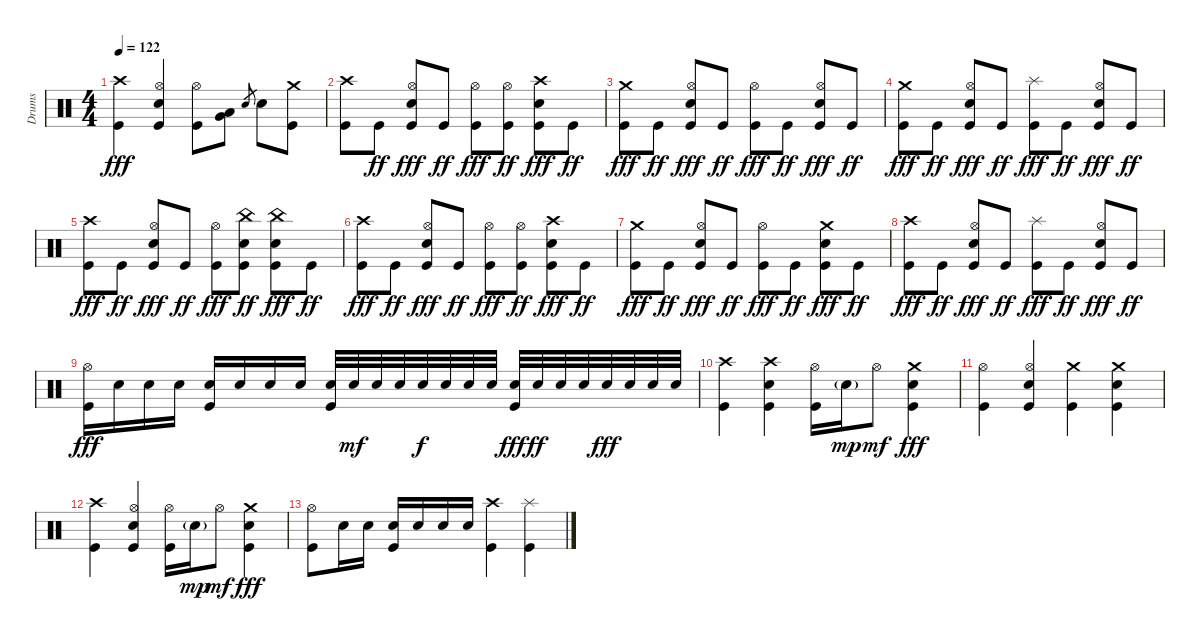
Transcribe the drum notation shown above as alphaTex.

\track ("Drums" "Drums") {instrument percussion}
\staff {score}
\articulation defaults
\ts (4 4)
\tempo 122
\clef neutral
\ks c
("Crash high (hit)" "Kick (hit)").4{dy fff} ("Hi-Hat (open)" "Snare (hit) 2" "Kick (hit)").4 ("Hi-Hat (open)" "Kick (hit)").8 ("Low Tom (hit)" "Very Low Tom (hit)").8 "Snare (hit) 2".8{gr} "Snare (hit) 2".8 ("Crash medium (hit)" "Kick (hit)").8 |
("Crash high (hit)" "Kick (hit)").8 "Kick (hit)".8{dy ff} ("Hi-Hat (open)" "Snare (hit) 2" "Kick (hit)").8{dy fff} "Kick (hit)".8{dy ff} ("Hi-Hat (open)" "Kick (hit)").8{dy fff} ("Hi-Hat (open)" "Kick (hit)").8{dy ff} ("Crash high (hit)" "Snare (hit) 2" "Kick (hit)").8{dy fff} "Kick (hit)".8{dy ff} |
("Crash medium (hit)" "Kick (hit)").8{dy fff} "Kick (hit)".8{dy ff} ("Hi-Hat (open)" "Snare (hit) 2" "Kick (hit)").8{dy fff} "Kick (hit)".8{dy ff} ("Hi-Hat (open)" "Kick (hit)").8{dy fff} "Kick (hit)".8{dy ff} ("Hi-Hat (open)" "Snare (hit) 2" "Kick (hit)").8{dy fff} "Kick (hit)".8{dy ff} |
("Crash medium (hit)" "Kick (hit)").8{dy fff} "Kick (hit)".8{dy ff} ("Hi-Hat (open)" "Snare (hit) 2" "Kick (hit)").8{dy fff} "Kick (hit)".8{dy ff} ("Splash (hit)" "Kick (hit)").8{dy fff} "Kick (hit)".8{dy ff} ("Hi-Hat (open)" "Snare (hit) 2" "Kick (hit)").8{dy fff} "Kick (hit)".8{dy ff} |
("Crash high (hit)" "Kick (hit)").8{dy fff} "Kick (hit)".8{dy ff} ("Hi-Hat (open)" "Snare (hit) 2" "Kick (hit)").8{dy fff} "Kick (hit)".8{dy ff} ("Hi-Hat (open)" "Kick (hit)").8{dy fff} ("China (hit)" "Snare (hit) 2" "Kick (hit)").8{dy ff} ("China (hit)" "Snare (hit) 2" "Kick (hit)").8{dy fff} "Kick (hit)".8{dy ff} |
("Crash high (hit)" "Kick (hit)").8{dy fff} "Kick (hit)".8{dy ff} ("Hi-Hat (open)" "Snare (hit) 2" "Kick (hit)").8{dy fff} "Kick (hit)".8{dy ff} ("Hi-Hat (open)" "Kick (hit)").8{dy fff} ("Hi-Hat (open)" "Kick (hit)").8{dy ff} ("Crash high (hit)" "Snare (hit) 2" "Kick (hit)").8{dy fff} "Kick (hit)".8{dy ff} |
("Crash medium (hit)" "Kick (hit)").8{dy fff} "Kick (hit)".8{dy ff} ("Hi-Hat (open)" "Snare (hit) 2" "Kick (hit)").8{dy fff} "Kick (hit)".8{dy ff} ("Hi-Hat (open)" "Kick (hit)").8{dy fff} "Kick (hit)".8{dy ff} ("Crash medium (hit)" "Snare (hit) 2" "Kick (hit)").8{dy fff} "Kick (hit)".8{dy ff} |
("Crash high (hit)" "Kick (hit)").8{dy fff} "Kick (hit)".8{dy ff} ("Hi-Hat (open)" "Snare (hit) 2" "Kick (hit)").8{dy fff} "Kick (hit)".8{dy ff} ("Splash (hit)" "Kick (hit)").8{dy fff} "Kick (hit)".8{dy ff} ("Hi-Hat (open)" "Snare (hit) 2" "Kick (hit)").8{dy fff} "Kick (hit)".8{dy ff} |
("Hi-Hat (open)" "Kick (hit)").16{dy fff} "Snare (hit) 2".16 "Snare (hit) 2".16 "Snare (hit) 2".16 ("Snare (hit) 2" "Kick (hit)").16 "Snare (hit) 2".16 "Snare (hit) 2".16 "Snare (hit) 2".16 ("Snare (hit) 2" "Kick (hit)").32 "Snare (hit) 2".32{dy mf} "Snare (hit) 2".32 "Snare (hit) 2".32 "Snare (hit) 2".32{dy f} "Snare (hit) 2".32 "Snare (hit) 2".32 "Snare (hit) 2".32 ("Snare (hit) 2" "Kick (hit)").32{dy fff} "Snare (hit) 2".32{dy ff} "Snare (hit) 2".32 "Snare (hit) 2".32 "Snare (hit) 2".32{dy fff} "Snare (hit) 2".32 "Snare (hit) 2".32 "Snare (hit) 2".32 |
("Crash high (hit)" "Kick (hit)").4 ("Crash high (hit)" "Snare (hit) 2" "Kick (hit)").4 ("Hi-Hat (open)" "Kick (hit)").16 "Snare (hit) 2"{g}.16{dy mp} "Hi-Hat (open)".8{dy mf} ("Crash medium (hit)" "Snare (hit) 2" "Kick (hit)").4{dy fff} |
("Hi-Hat (open)" "Kick (hit)").4 ("Hi-Hat (open)" "Snare (hit) 2" "Kick (hit)").4 ("Crash medium (hit)" "Kick (hit)").4 ("Crash medium (hit)" "Snare (hit) 2" "Kick (hit)").4 |
("Crash high (hit)" "Kick (hit)").4 ("Hi-Hat (open)" "Snare (hit) 2" "Kick (hit)").4 ("Hi-Hat (open)" "Kick (hit)").16 "Snare (hit) 2"{g}.16{dy mp} "Hi-Hat (open)".8{dy mf} ("Crash medium (hit)" "Snare (hit) 2" "Kick (hit)").4{dy fff} |
("Hi-Hat (open)" "Kick (hit)").8 "Snare (hit) 2".16 "Snare (hit) 2".16 ("Snare (hit) 2" "Kick (hit)").16 "Snare (hit) 2".16 "Snare (hit) 2".16 "Snare (hit) 2".16 ("Crash high (hit)" "Kick (hit)").4 ("Splash (hit)" "Kick (hit)").4
